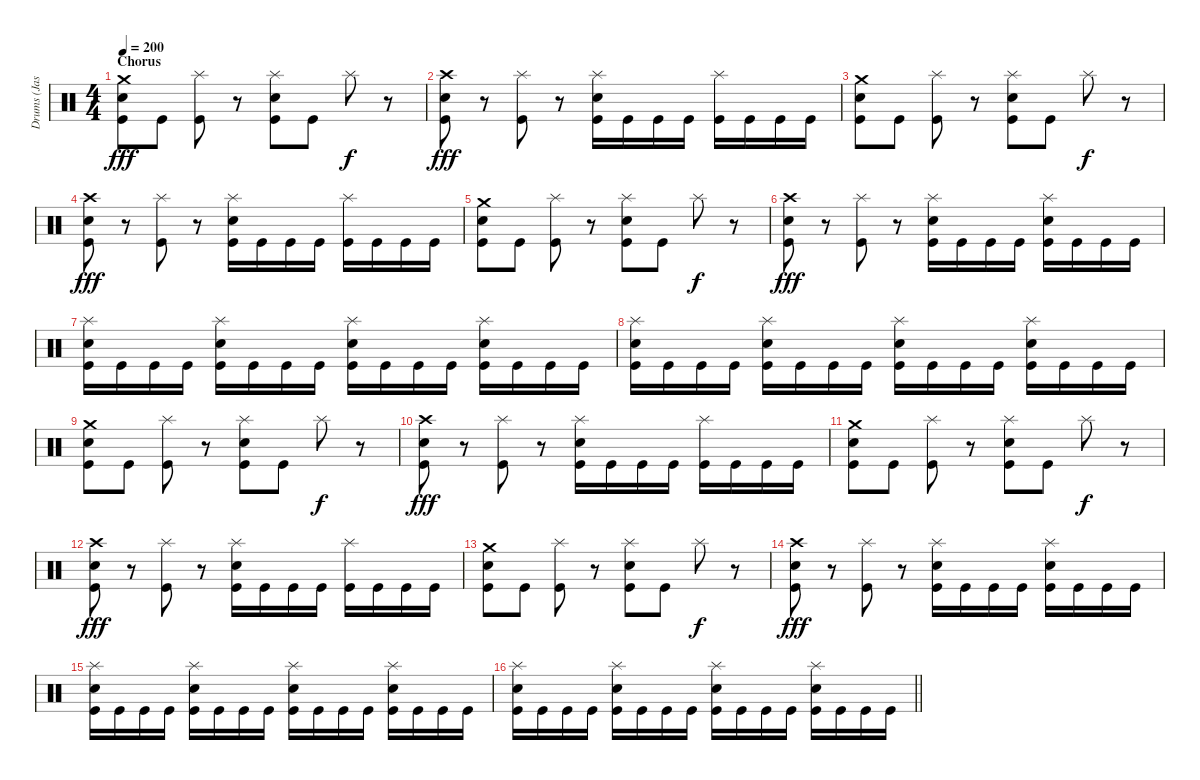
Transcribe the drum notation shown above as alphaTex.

\track ("Drums (Jason Costa)" "Drums (Jas") {instrument percussion}
\staff {score}
\articulation defaults
\ts (4 4)
\section ("" "Chorus")
\tempo 200
\clef neutral
\ks c
("Crash medium (hit)" "Electric Snare (hit)" "Kick (hit)").8{dy fff} "Kick (hit)".8 ("Splash (hit)" "Kick (hit)").8 r.8 ("Splash (hit)" "Electric Snare (hit)" "Kick (hit)").8 "Kick (hit)".8 "Splash (hit)".8{dy f} r.8 |
("Crash high (hit)" "Electric Snare (hit)" "Kick (hit)").8{dy fff} r.8 ("Splash (hit)" "Kick (hit)").8 r.8 ("Splash (hit)" "Electric Snare (hit)" "Kick (hit)").16 "Kick (hit)".16 "Kick (hit)".16 "Kick (hit)".16 ("Splash (hit)" "Kick (hit)").16 "Kick (hit)".16 "Kick (hit)".16 "Kick (hit)".16 |
("Crash medium (hit)" "Electric Snare (hit)" "Kick (hit)").8 "Kick (hit)".8 ("Splash (hit)" "Kick (hit)").8 r.8 ("Splash (hit)" "Electric Snare (hit)" "Kick (hit)").8 "Kick (hit)".8 "Splash (hit)".8{dy f} r.8 |
("Crash high (hit)" "Electric Snare (hit)" "Kick (hit)").8{dy fff} r.8 ("Splash (hit)" "Kick (hit)").8 r.8 ("Splash (hit)" "Electric Snare (hit)" "Kick (hit)").16 "Kick (hit)".16 "Kick (hit)".16 "Kick (hit)".16 ("Splash (hit)" "Kick (hit)").16 "Kick (hit)".16 "Kick (hit)".16 "Kick (hit)".16 |
("Crash medium (hit)" "Electric Snare (hit)" "Kick (hit)").8 "Kick (hit)".8 ("Splash (hit)" "Kick (hit)").8 r.8 ("Splash (hit)" "Electric Snare (hit)" "Kick (hit)").8 "Kick (hit)".8 "Splash (hit)".8{dy f} r.8 |
("Crash high (hit)" "Electric Snare (hit)" "Kick (hit)").8{dy fff} r.8 ("Splash (hit)" "Kick (hit)").8 r.8 ("Splash (hit)" "Electric Snare (hit)" "Kick (hit)").16 "Kick (hit)".16 "Kick (hit)".16 "Kick (hit)".16 ("Splash (hit)" "Electric Snare (hit)" "Kick (hit)").16 "Kick (hit)".16 "Kick (hit)".16 "Kick (hit)".16 |
("Splash (hit)" "Electric Snare (hit)" "Kick (hit)").16 "Kick (hit)".16 "Kick (hit)".16 "Kick (hit)".16 ("Splash (hit)" "Electric Snare (hit)" "Kick (hit)").16 "Kick (hit)".16 "Kick (hit)".16 "Kick (hit)".16 ("Splash (hit)" "Electric Snare (hit)" "Kick (hit)").16 "Kick (hit)".16 "Kick (hit)".16 "Kick (hit)".16 ("Splash (hit)" "Electric Snare (hit)" "Kick (hit)").16 "Kick (hit)".16 "Kick (hit)".16 "Kick (hit)".16 |
("Splash (hit)" "Electric Snare (hit)" "Kick (hit)").16 "Kick (hit)".16 "Kick (hit)".16 "Kick (hit)".16 ("Splash (hit)" "Electric Snare (hit)" "Kick (hit)").16 "Kick (hit)".16 "Kick (hit)".16 "Kick (hit)".16 ("Splash (hit)" "Electric Snare (hit)" "Kick (hit)").16 "Kick (hit)".16 "Kick (hit)".16 "Kick (hit)".16 ("Splash (hit)" "Electric Snare (hit)" "Kick (hit)").16 "Kick (hit)".16 "Kick (hit)".16 "Kick (hit)".16 |
("Crash medium (hit)" "Electric Snare (hit)" "Kick (hit)").8 "Kick (hit)".8 ("Splash (hit)" "Kick (hit)").8 r.8 ("Splash (hit)" "Electric Snare (hit)" "Kick (hit)").8 "Kick (hit)".8 "Splash (hit)".8{dy f} r.8 |
("Crash high (hit)" "Electric Snare (hit)" "Kick (hit)").8{dy fff} r.8 ("Splash (hit)" "Kick (hit)").8 r.8 ("Splash (hit)" "Electric Snare (hit)" "Kick (hit)").16 "Kick (hit)".16 "Kick (hit)".16 "Kick (hit)".16 ("Splash (hit)" "Kick (hit)").16 "Kick (hit)".16 "Kick (hit)".16 "Kick (hit)".16 |
("Crash medium (hit)" "Electric Snare (hit)" "Kick (hit)").8 "Kick (hit)".8 ("Splash (hit)" "Kick (hit)").8 r.8 ("Splash (hit)" "Electric Snare (hit)" "Kick (hit)").8 "Kick (hit)".8 "Splash (hit)".8{dy f} r.8 |
("Crash high (hit)" "Electric Snare (hit)" "Kick (hit)").8{dy fff} r.8 ("Splash (hit)" "Kick (hit)").8 r.8 ("Splash (hit)" "Electric Snare (hit)" "Kick (hit)").16 "Kick (hit)".16 "Kick (hit)".16 "Kick (hit)".16 ("Splash (hit)" "Kick (hit)").16 "Kick (hit)".16 "Kick (hit)".16 "Kick (hit)".16 |
("Crash medium (hit)" "Electric Snare (hit)" "Kick (hit)").8 "Kick (hit)".8 ("Splash (hit)" "Kick (hit)").8 r.8 ("Splash (hit)" "Electric Snare (hit)" "Kick (hit)").8 "Kick (hit)".8 "Splash (hit)".8{dy f} r.8 |
("Crash high (hit)" "Electric Snare (hit)" "Kick (hit)").8{dy fff} r.8 ("Splash (hit)" "Kick (hit)").8 r.8 ("Splash (hit)" "Electric Snare (hit)" "Kick (hit)").16 "Kick (hit)".16 "Kick (hit)".16 "Kick (hit)".16 ("Splash (hit)" "Electric Snare (hit)" "Kick (hit)").16 "Kick (hit)".16 "Kick (hit)".16 "Kick (hit)".16 |
("Splash (hit)" "Electric Snare (hit)" "Kick (hit)").16 "Kick (hit)".16 "Kick (hit)".16 "Kick (hit)".16 ("Splash (hit)" "Electric Snare (hit)" "Kick (hit)").16 "Kick (hit)".16 "Kick (hit)".16 "Kick (hit)".16 ("Splash (hit)" "Electric Snare (hit)" "Kick (hit)").16 "Kick (hit)".16 "Kick (hit)".16 "Kick (hit)".16 ("Splash (hit)" "Electric Snare (hit)" "Kick (hit)").16 "Kick (hit)".16 "Kick (hit)".16 "Kick (hit)".16 |
\barLineRight lightlight
("Splash (hit)" "Electric Snare (hit)" "Kick (hit)").16 "Kick (hit)".16 "Kick (hit)".16 "Kick (hit)".16 ("Splash (hit)" "Electric Snare (hit)" "Kick (hit)").16 "Kick (hit)".16 "Kick (hit)".16 "Kick (hit)".16 ("Splash (hit)" "Electric Snare (hit)" "Kick (hit)").16 "Kick (hit)".16 "Kick (hit)".16 "Kick (hit)".16 ("Splash (hit)" "Electric Snare (hit)" "Kick (hit)").16 "Kick (hit)".16 "Kick (hit)".16 "Kick (hit)".16
